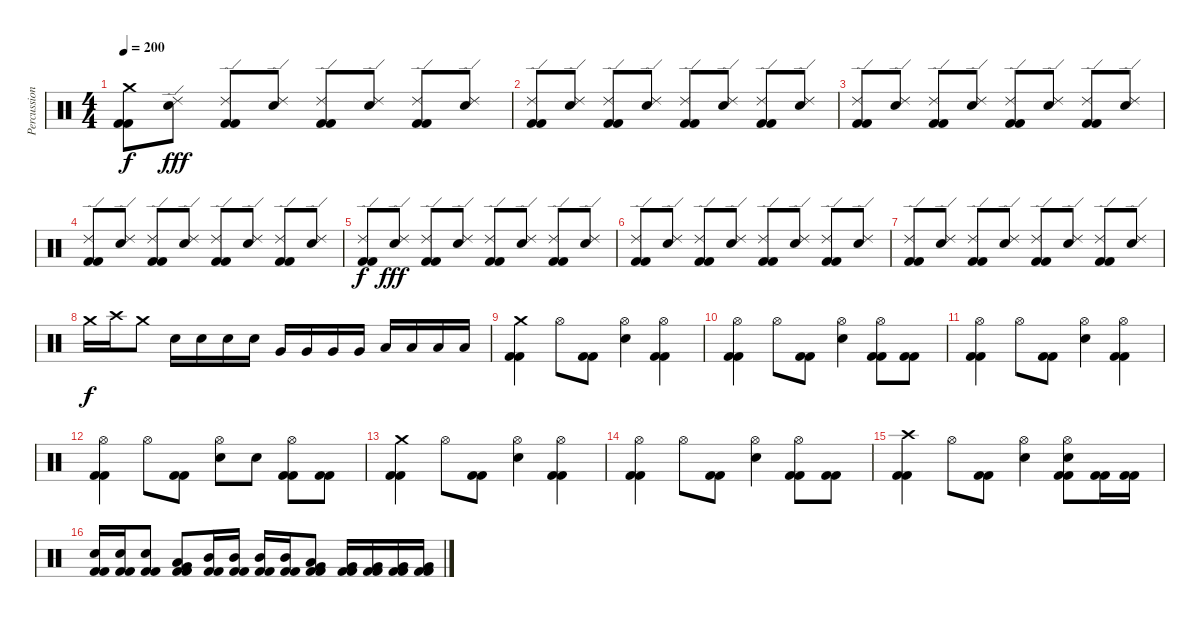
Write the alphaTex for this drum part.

\track ("Percussion" "Percussion") {instrument percussion}
\staff {score}
\articulation defaults
\ts (4 4)
\tempo 200
\clef neutral
\ks c
("Crash medium (hit)" "Kick (hit) 2" "Kick (hit) 2").8{dy f} ("Electric Snare (hit)" "Ride (edge) 2").8{dy fff} ("Kick (hit) 2" "Kick (hit) 2" "Ride (edge) 2").8 ("Electric Snare (hit)" "Ride (edge) 2").8 ("Kick (hit) 2" "Kick (hit) 2" "Ride (edge) 2").8 ("Electric Snare (hit)" "Ride (edge) 2").8 ("Kick (hit) 2" "Kick (hit) 2" "Ride (edge) 2").8 ("Electric Snare (hit)" "Ride (edge) 2").8 |
("Kick (hit) 2" "Kick (hit) 2" "Ride (edge) 2").8 ("Electric Snare (hit)" "Ride (edge) 2").8 ("Kick (hit) 2" "Kick (hit) 2" "Ride (edge) 2").8 ("Electric Snare (hit)" "Ride (edge) 2").8 ("Kick (hit) 2" "Kick (hit) 2" "Ride (edge) 2").8 ("Electric Snare (hit)" "Ride (edge) 2").8 ("Kick (hit) 2" "Kick (hit) 2" "Ride (edge) 2").8 ("Electric Snare (hit)" "Ride (edge) 2").8 |
("Kick (hit) 2" "Kick (hit) 2" "Ride (edge) 2").8 ("Electric Snare (hit)" "Ride (edge) 2").8 ("Kick (hit) 2" "Kick (hit) 2" "Ride (edge) 2").8 ("Electric Snare (hit)" "Ride (edge) 2").8 ("Kick (hit) 2" "Kick (hit) 2" "Ride (edge) 2").8 ("Electric Snare (hit)" "Ride (edge) 2").8 ("Kick (hit) 2" "Kick (hit) 2" "Ride (edge) 2").8 ("Electric Snare (hit)" "Ride (edge) 2").8 |
("Kick (hit) 2" "Kick (hit) 2" "Ride (edge) 2").8 ("Electric Snare (hit)" "Ride (edge) 2").8 ("Kick (hit) 2" "Kick (hit) 2" "Ride (edge) 2").8 ("Electric Snare (hit)" "Ride (edge) 2").8 ("Kick (hit) 2" "Kick (hit) 2" "Ride (edge) 2").8 ("Electric Snare (hit)" "Ride (edge) 2").8 ("Kick (hit) 2" "Kick (hit) 2" "Ride (edge) 2").8 ("Electric Snare (hit)" "Ride (edge) 2").8 |
("Ride (edge) 2" "Kick (hit) 2" "Kick (hit) 2").8{dy f} ("Electric Snare (hit)" "Ride (edge) 2").8{dy fff} ("Kick (hit) 2" "Kick (hit) 2" "Ride (edge) 2").8 ("Electric Snare (hit)" "Ride (edge) 2").8 ("Kick (hit) 2" "Kick (hit) 2" "Ride (edge) 2").8 ("Electric Snare (hit)" "Ride (edge) 2").8 ("Kick (hit) 2" "Kick (hit) 2" "Ride (edge) 2").8 ("Electric Snare (hit)" "Ride (edge) 2").8 |
("Kick (hit) 2" "Kick (hit) 2" "Ride (edge) 2").8 ("Electric Snare (hit)" "Ride (edge) 2").8 ("Kick (hit) 2" "Kick (hit) 2" "Ride (edge) 2").8 ("Electric Snare (hit)" "Ride (edge) 2").8 ("Kick (hit) 2" "Kick (hit) 2" "Ride (edge) 2").8 ("Electric Snare (hit)" "Ride (edge) 2").8 ("Kick (hit) 2" "Kick (hit) 2" "Ride (edge) 2").8 ("Electric Snare (hit)" "Ride (edge) 2").8 |
("Kick (hit) 2" "Kick (hit) 2" "Ride (edge) 2").8 ("Electric Snare (hit)" "Ride (edge) 2").8 ("Kick (hit) 2" "Kick (hit) 2" "Ride (edge) 2").8 ("Electric Snare (hit)" "Ride (edge) 2").8 ("Kick (hit) 2" "Kick (hit) 2" "Ride (edge) 2").8 ("Electric Snare (hit)" "Ride (edge) 2").8 ("Kick (hit) 2" "Kick (hit) 2" "Ride (edge) 2").8 ("Electric Snare (hit)" "Ride (edge) 2").8 |
"Crash medium (hit)".16{dy f} "Crash high (hit)".16 "Crash medium (hit)".8 "Electric Snare (hit)".16 "Electric Snare (hit)".16 "Electric Snare (hit)".16 "Electric Snare (hit)".16 "Very Low Tom (hit)".16 "Very Low Tom (hit)".16 "Very Low Tom (hit)".16 "Very Low Tom (hit)".16 "Low Tom (hit)".16 "Low Tom (hit)".16 "Low Tom (hit)".16 "Low Tom (hit)".16 |
("Crash medium (hit)" "Kick (hit) 2" "Kick (hit) 2").4 "Hi-Hat (open)".8 ("Kick (hit) 2" "Kick (hit) 2").8 ("Hi-Hat (open)" "Electric Snare (hit)").4 ("Hi-Hat (open)" "Kick (hit) 2" "Kick (hit) 2").4 |
("Hi-Hat (open)" "Kick (hit) 2" "Kick (hit) 2").4 "Hi-Hat (open)".8 ("Kick (hit) 2" "Kick (hit) 2").8 ("Hi-Hat (open)" "Electric Snare (hit)").4 ("Hi-Hat (open)" "Kick (hit) 2" "Kick (hit) 2").8 ("Kick (hit) 2" "Kick (hit) 2").8 |
("Hi-Hat (open)" "Kick (hit) 2" "Kick (hit) 2").4 "Hi-Hat (open)".8 ("Kick (hit) 2" "Kick (hit) 2").8 ("Hi-Hat (open)" "Electric Snare (hit)").4 ("Hi-Hat (open)" "Kick (hit) 2" "Kick (hit) 2").4 |
("Hi-Hat (open)" "Kick (hit) 2" "Kick (hit) 2").4 "Hi-Hat (open)".8 ("Kick (hit) 2" "Kick (hit) 2").8 ("Hi-Hat (open)" "Electric Snare (hit)").8 "Electric Snare (hit)".8 ("Hi-Hat (open)" "Kick (hit) 2" "Kick (hit) 2").8 ("Kick (hit) 2" "Kick (hit) 2").8 |
("Crash medium (hit)" "Kick (hit) 2" "Kick (hit) 2").4 "Hi-Hat (open)".8 ("Kick (hit) 2" "Kick (hit) 2").8 ("Hi-Hat (open)" "Electric Snare (hit)").4 ("Hi-Hat (open)" "Kick (hit) 2" "Kick (hit) 2").4 |
("Hi-Hat (open)" "Kick (hit) 2" "Kick (hit) 2").4 "Hi-Hat (open)".8 ("Kick (hit) 2" "Kick (hit) 2").8 ("Hi-Hat (open)" "Electric Snare (hit)").4 ("Hi-Hat (open)" "Kick (hit) 2" "Kick (hit) 2").8 ("Kick (hit) 2" "Kick (hit) 2").8 |
("Crash high (hit)" "Kick (hit) 2" "Kick (hit) 2").4 "Hi-Hat (open)".8 ("Kick (hit) 2" "Kick (hit) 2").8 ("Hi-Hat (open)" "Electric Snare (hit)").4 ("Hi-Hat (open)" "Kick (hit) 2" "Kick (hit) 2" "Electric Snare (hit)").8 ("Kick (hit) 2" "Kick (hit) 2").16 ("Kick (hit) 2" "Kick (hit) 2").16 |
("Electric Snare (hit)" "Kick (hit) 2" "Kick (hit) 2").16 ("Electric Snare (hit)" "Kick (hit) 2" "Kick (hit) 2").16 ("Electric Snare (hit)" "Kick (hit) 2" "Kick (hit) 2").8 ("Very Low Tom (hit)" "Kick (hit) 2" "Kick (hit) 2" "Low Tom (hit)").8 ("Mid Tom (hit)" "Kick (hit) 2" "Kick (hit) 2").16 ("Mid Tom (hit)" "Kick (hit) 2" "Kick (hit) 2").16 ("Mid Tom (hit)" "Kick (hit) 2" "Kick (hit) 2").16 ("Mid Tom (hit)" "Kick (hit) 2" "Kick (hit) 2").16 ("Very Low Tom (hit)" "Kick (hit) 2" "Kick (hit) 2" "Low Tom (hit)").8 ("Very Low Tom (hit)" "Kick (hit) 2" "Kick (hit) 2").16 ("Very Low Tom (hit)" "Kick (hit) 2" "Kick (hit) 2").16 ("Very Low Tom (hit)" "Kick (hit) 2" "Kick (hit) 2").16 ("Very Low Tom (hit)" "Kick (hit) 2" "Kick (hit) 2").16
